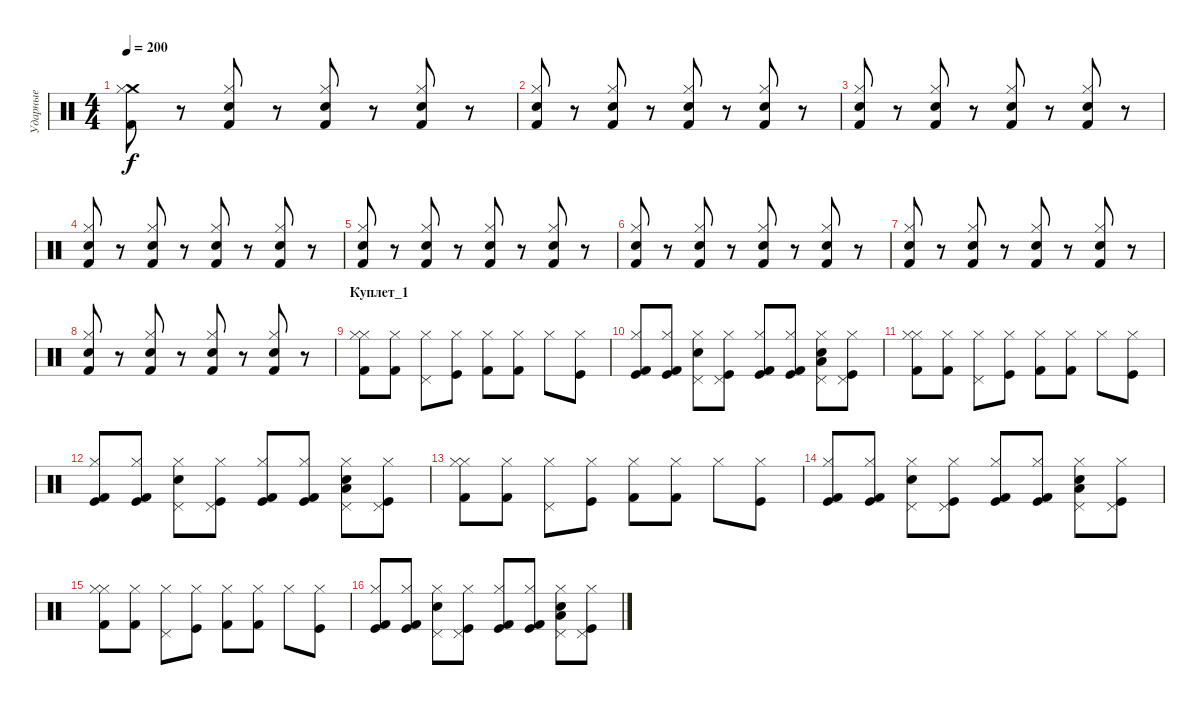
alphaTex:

\track ("Ударные" "Ударные") {instrument percussion}
\staff {score}
\articulation defaults
\ts (4 4)
\tempo 200
\clef neutral
\ks c
("Crash medium (hit)" "Kick (hit) 2" "Hi-Hat (closed)").8{dy f} r.8 ("Snare (hit) 2" "Kick (hit) 2" "Hi-Hat (closed)").8 r.8 ("Snare (hit) 2" "Kick (hit) 2" "Hi-Hat (closed)").8 r.8 ("Snare (hit) 2" "Kick (hit) 2" "Hi-Hat (closed)").8 r.8 |
("Snare (hit) 2" "Kick (hit) 2" "Hi-Hat (closed)").8 r.8 ("Snare (hit) 2" "Kick (hit) 2" "Hi-Hat (closed)").8 r.8 ("Snare (hit) 2" "Kick (hit) 2" "Hi-Hat (closed)").8 r.8 ("Snare (hit) 2" "Kick (hit) 2" "Hi-Hat (closed)").8 r.8 |
("Snare (hit) 2" "Kick (hit) 2" "Hi-Hat (closed)").8 r.8 ("Snare (hit) 2" "Kick (hit) 2" "Hi-Hat (closed)").8 r.8 ("Snare (hit) 2" "Kick (hit) 2" "Hi-Hat (closed)").8 r.8 ("Snare (hit) 2" "Kick (hit) 2" "Hi-Hat (closed)").8 r.8 |
("Snare (hit) 2" "Kick (hit) 2" "Hi-Hat (closed)").8 r.8 ("Snare (hit) 2" "Kick (hit) 2" "Hi-Hat (closed)").8 r.8 ("Snare (hit) 2" "Kick (hit) 2" "Hi-Hat (closed)").8 r.8 ("Snare (hit) 2" "Kick (hit) 2" "Hi-Hat (closed)").8 r.8 |
("Snare (hit) 2" "Kick (hit) 2" "Hi-Hat (closed)").8 r.8 ("Snare (hit) 2" "Kick (hit) 2" "Hi-Hat (closed)").8 r.8 ("Snare (hit) 2" "Kick (hit) 2" "Hi-Hat (closed)").8 r.8 ("Snare (hit) 2" "Kick (hit) 2" "Hi-Hat (closed)").8 r.8 |
("Snare (hit) 2" "Kick (hit) 2" "Hi-Hat (closed)").8 r.8 ("Snare (hit) 2" "Kick (hit) 2" "Hi-Hat (closed)").8 r.8 ("Snare (hit) 2" "Kick (hit) 2" "Hi-Hat (closed)").8 r.8 ("Snare (hit) 2" "Kick (hit) 2" "Hi-Hat (closed)").8 r.8 |
("Snare (hit) 2" "Kick (hit) 2" "Hi-Hat (closed)").8 r.8 ("Snare (hit) 2" "Kick (hit) 2" "Hi-Hat (closed)").8 r.8 ("Snare (hit) 2" "Kick (hit) 2" "Hi-Hat (closed)").8 r.8 ("Snare (hit) 2" "Kick (hit) 2" "Hi-Hat (closed)").8 r.8 |
("Snare (hit) 2" "Kick (hit) 2" "Hi-Hat (closed)").8 r.8 ("Snare (hit) 2" "Kick (hit) 2" "Hi-Hat (closed)").8 r.8 ("Snare (hit) 2" "Kick (hit) 2" "Hi-Hat (closed)").8 r.8 ("Snare (hit) 2" "Kick (hit) 2" "Hi-Hat (closed)").8 r.8 |
\section ("" "Куплет_1")
("Hi-Hat (closed)" "Kick (hit) 2" "Hi-Hat (closed)").8 ("Hi-Hat (closed)" "Kick (hit) 2").8 ("Hi-Hat (closed)" "Pedal Hi-Hat (hit)").8 ("Hi-Hat (closed)" "Kick (hit)").8 ("Hi-Hat (closed)" "Kick (hit) 2").8 ("Hi-Hat (closed)" "Kick (hit) 2").8 "Hi-Hat (closed)".8 ("Hi-Hat (closed)" "Kick (hit)").8 |
("Kick (hit)" "Kick (hit) 2" "Hi-Hat (closed)").8 ("Kick (hit)" "Kick (hit) 2" "Hi-Hat (closed)").8 ("Electric Snare (hit)" "Pedal Hi-Hat (hit)" "Hi-Hat (closed)").8 ("Pedal Hi-Hat (hit)" "Kick (hit)" "Hi-Hat (closed)").8 ("Kick (hit)" "Kick (hit) 2" "Hi-Hat (closed)").8 ("Kick (hit)" "Kick (hit) 2" "Hi-Hat (closed)").8 ("Low Tom (hit)" "Electric Snare (hit)" "Pedal Hi-Hat (hit)" "Hi-Hat (closed)").8 ("Pedal Hi-Hat (hit)" "Kick (hit)" "Hi-Hat (closed)").8 |
("Hi-Hat (closed)" "Kick (hit) 2" "Hi-Hat (closed)").8 ("Hi-Hat (closed)" "Kick (hit) 2").8 ("Hi-Hat (closed)" "Pedal Hi-Hat (hit)").8 ("Hi-Hat (closed)" "Kick (hit)").8 ("Hi-Hat (closed)" "Kick (hit) 2").8 ("Hi-Hat (closed)" "Kick (hit) 2").8 "Hi-Hat (closed)".8 ("Hi-Hat (closed)" "Kick (hit)").8 |
("Kick (hit)" "Kick (hit) 2" "Hi-Hat (closed)").8 ("Kick (hit)" "Kick (hit) 2" "Hi-Hat (closed)").8 ("Electric Snare (hit)" "Pedal Hi-Hat (hit)" "Hi-Hat (closed)").8 ("Pedal Hi-Hat (hit)" "Kick (hit)" "Hi-Hat (closed)").8 ("Kick (hit)" "Kick (hit) 2" "Hi-Hat (closed)").8 ("Kick (hit)" "Kick (hit) 2" "Hi-Hat (closed)").8 ("Low Tom (hit)" "Electric Snare (hit)" "Pedal Hi-Hat (hit)" "Hi-Hat (closed)").8 ("Pedal Hi-Hat (hit)" "Kick (hit)" "Hi-Hat (closed)").8 |
("Hi-Hat (closed)" "Kick (hit) 2" "Hi-Hat (closed)").8 ("Hi-Hat (closed)" "Kick (hit) 2").8 ("Hi-Hat (closed)" "Pedal Hi-Hat (hit)").8 ("Hi-Hat (closed)" "Kick (hit)").8 ("Hi-Hat (closed)" "Kick (hit) 2").8 ("Hi-Hat (closed)" "Kick (hit) 2").8 "Hi-Hat (closed)".8 ("Hi-Hat (closed)" "Kick (hit)").8 |
("Kick (hit)" "Kick (hit) 2" "Hi-Hat (closed)").8 ("Kick (hit)" "Kick (hit) 2" "Hi-Hat (closed)").8 ("Electric Snare (hit)" "Pedal Hi-Hat (hit)" "Hi-Hat (closed)").8 ("Pedal Hi-Hat (hit)" "Kick (hit)" "Hi-Hat (closed)").8 ("Kick (hit)" "Kick (hit) 2" "Hi-Hat (closed)").8 ("Kick (hit)" "Kick (hit) 2" "Hi-Hat (closed)").8 ("Low Tom (hit)" "Electric Snare (hit)" "Pedal Hi-Hat (hit)" "Hi-Hat (closed)").8 ("Pedal Hi-Hat (hit)" "Kick (hit)" "Hi-Hat (closed)").8 |
("Hi-Hat (closed)" "Kick (hit) 2" "Hi-Hat (closed)").8 ("Hi-Hat (closed)" "Kick (hit) 2").8 ("Hi-Hat (closed)" "Pedal Hi-Hat (hit)").8 ("Hi-Hat (closed)" "Kick (hit)").8 ("Hi-Hat (closed)" "Kick (hit) 2").8 ("Hi-Hat (closed)" "Kick (hit) 2").8 "Hi-Hat (closed)".8 ("Hi-Hat (closed)" "Kick (hit)").8 |
("Kick (hit)" "Kick (hit) 2" "Hi-Hat (closed)").8 ("Kick (hit)" "Kick (hit) 2" "Hi-Hat (closed)").8 ("Electric Snare (hit)" "Pedal Hi-Hat (hit)" "Hi-Hat (closed)").8 ("Pedal Hi-Hat (hit)" "Kick (hit)" "Hi-Hat (closed)").8 ("Kick (hit)" "Kick (hit) 2" "Hi-Hat (closed)").8 ("Kick (hit)" "Kick (hit) 2" "Hi-Hat (closed)").8 ("Low Tom (hit)" "Electric Snare (hit)" "Pedal Hi-Hat (hit)" "Hi-Hat (closed)").8 ("Pedal Hi-Hat (hit)" "Kick (hit)" "Hi-Hat (closed)").8
